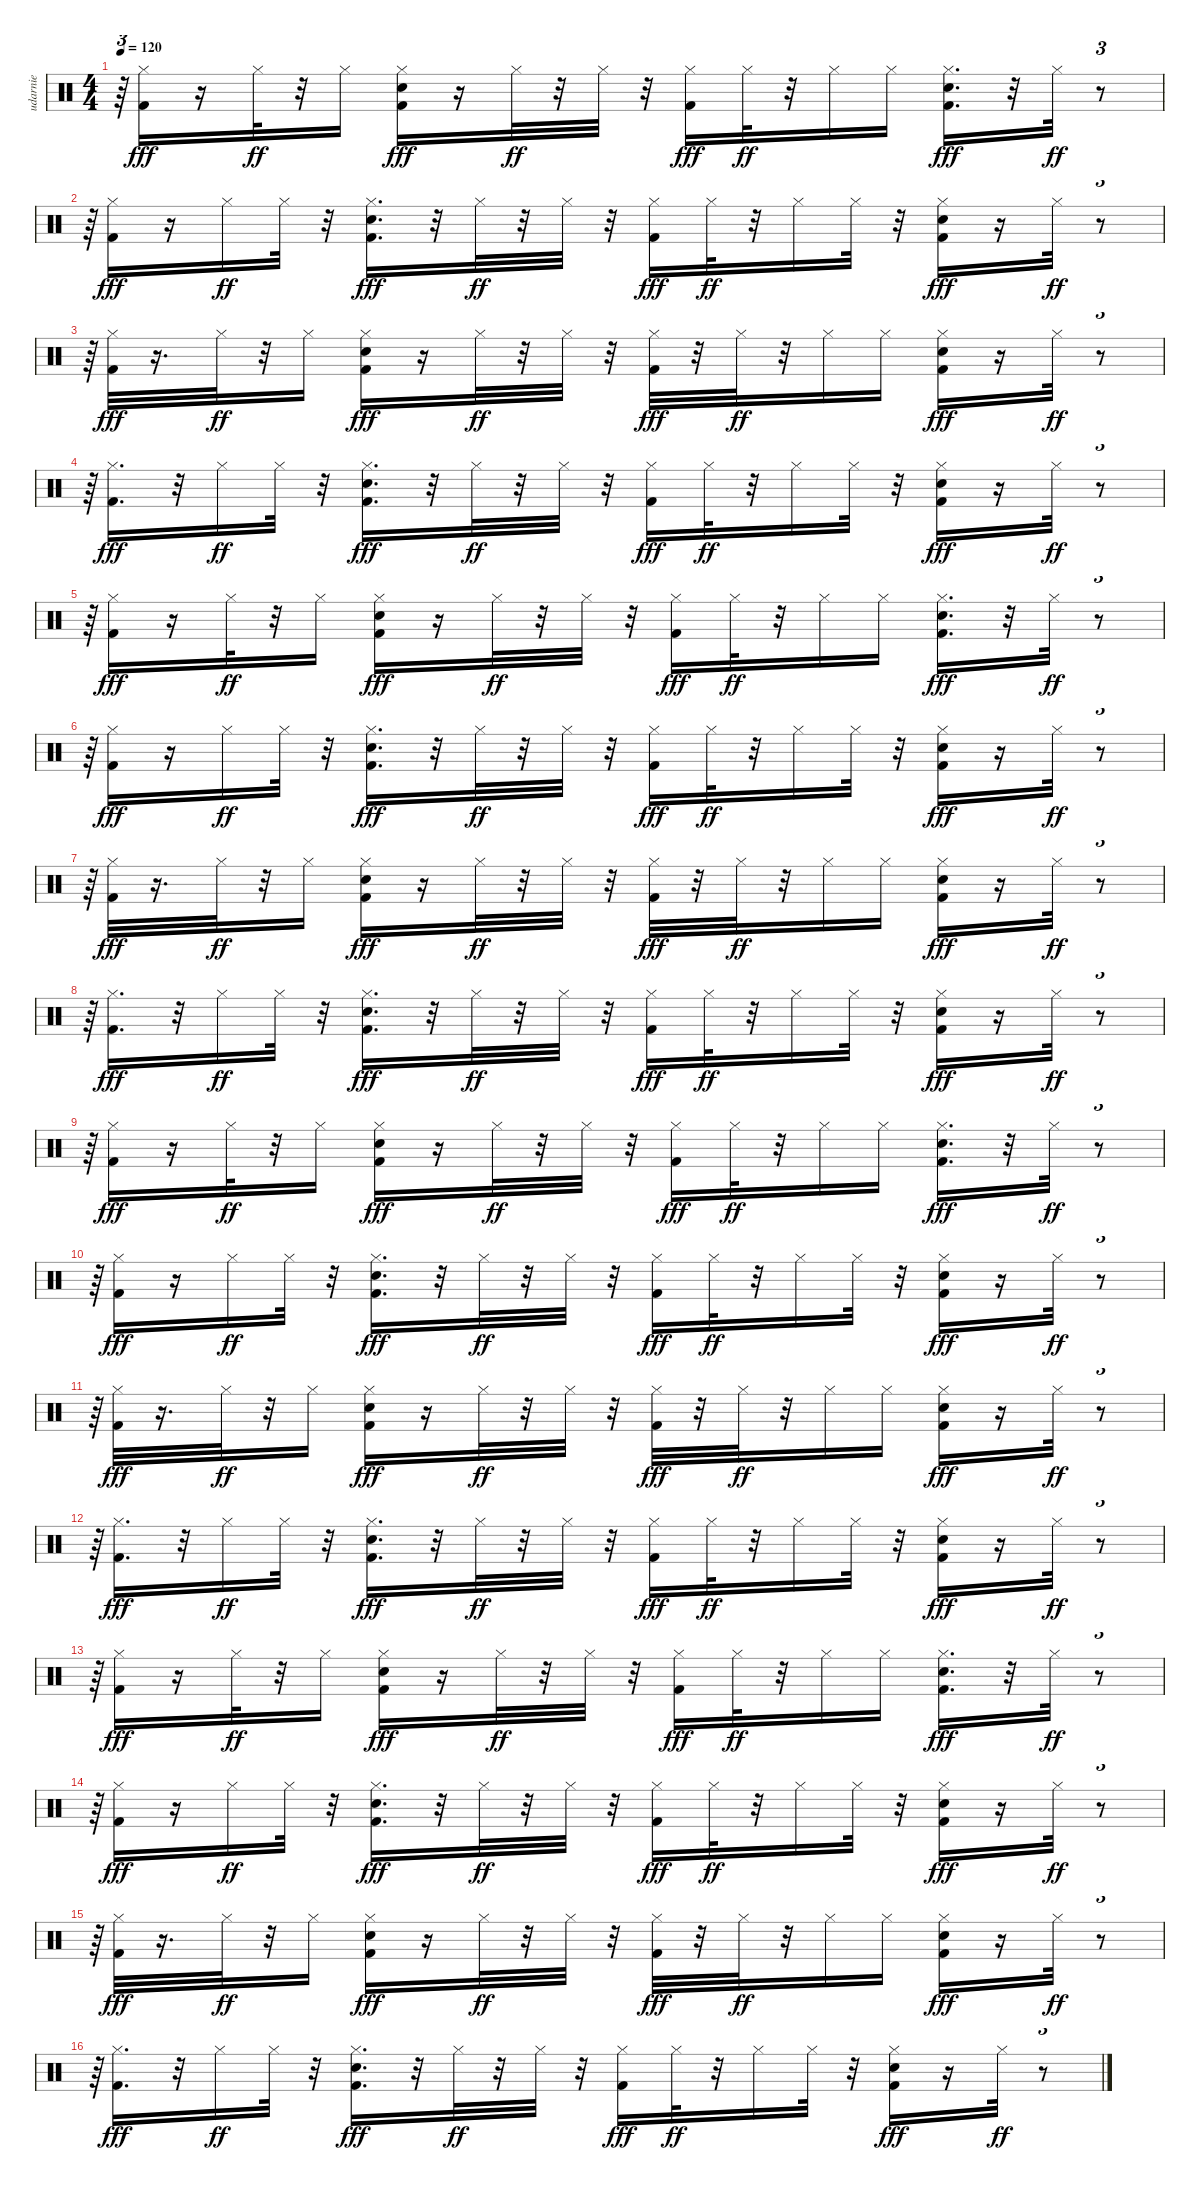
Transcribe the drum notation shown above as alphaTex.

\track ("udarnie" "udarnie") {instrument percussion}
\staff {score}
\articulation defaults
\ts (4 4)
\tempo 120
\clef neutral
\ks c
r.64{tu (3 2) dy ff} ("Hi-Hat (closed)" "Kick (hit) 2").16{dy fff} r.16 "Hi-Hat (closed)".32{dy ff} r.32 "Hi-Hat (closed)".16 ("Hi-Hat (closed)" "Electric Snare (hit)" "Kick (hit) 2").16{dy fff} r.16 "Hi-Hat (closed)".32{dy ff} r.32 "Hi-Hat (closed)".32 r.32 ("Hi-Hat (closed)" "Kick (hit) 2").16{dy fff} "Hi-Hat (closed)".32{dy ff} r.32 "Hi-Hat (closed)".16 "Hi-Hat (closed)".16 ("Hi-Hat (closed)" "Electric Snare (hit)" "Kick (hit) 2").16{d dy fff} r.32 "Hi-Hat (closed)".32{dy ff} r.8{tu (3 2)} |
r.64{tu (3 2)} ("Hi-Hat (closed)" "Kick (hit) 2").16{dy fff} r.16 "Hi-Hat (closed)".16{dy ff} "Hi-Hat (closed)".32 r.32 ("Hi-Hat (closed)" "Electric Snare (hit)" "Kick (hit) 2").16{d dy fff} r.32 "Hi-Hat (closed)".32{dy ff} r.32 "Hi-Hat (closed)".32 r.32 ("Hi-Hat (closed)" "Kick (hit) 2").16{dy fff} "Hi-Hat (closed)".32{dy ff} r.32 "Hi-Hat (closed)".16 "Hi-Hat (closed)".32 r.32 ("Hi-Hat (closed)" "Electric Snare (hit)" "Kick (hit) 2").16{dy fff} r.16 "Hi-Hat (closed)".32{dy ff} r.8{tu (3 2)} |
r.64{tu (3 2)} ("Hi-Hat (closed)" "Kick (hit) 2").32{dy fff} r.16{d} "Hi-Hat (closed)".32{dy ff} r.32 "Hi-Hat (closed)".16 ("Hi-Hat (closed)" "Electric Snare (hit)" "Kick (hit) 2").16{dy fff} r.16 "Hi-Hat (closed)".32{dy ff} r.32 "Hi-Hat (closed)".32 r.32 ("Hi-Hat (closed)" "Kick (hit) 2").32{dy fff} r.32 "Hi-Hat (closed)".32{dy ff} r.32 "Hi-Hat (closed)".16 "Hi-Hat (closed)".16 ("Hi-Hat (closed)" "Electric Snare (hit)" "Kick (hit) 2").16{dy fff} r.16 "Hi-Hat (closed)".32{dy ff} r.8{tu (3 2)} |
r.64{tu (3 2)} ("Hi-Hat (closed)" "Kick (hit) 2").16{d dy fff} r.32 "Hi-Hat (closed)".16{dy ff} "Hi-Hat (closed)".32 r.32 ("Hi-Hat (closed)" "Electric Snare (hit)" "Kick (hit) 2").16{d dy fff} r.32 "Hi-Hat (closed)".32{dy ff} r.32 "Hi-Hat (closed)".32 r.32 ("Hi-Hat (closed)" "Kick (hit) 2").16{dy fff} "Hi-Hat (closed)".32{dy ff} r.32 "Hi-Hat (closed)".16 "Hi-Hat (closed)".32 r.32 ("Hi-Hat (closed)" "Electric Snare (hit)" "Kick (hit) 2").16{dy fff} r.16 "Hi-Hat (closed)".32{dy ff} r.8{tu (3 2)} |
r.64{tu (3 2)} ("Hi-Hat (closed)" "Kick (hit) 2").16{dy fff} r.16 "Hi-Hat (closed)".32{dy ff} r.32 "Hi-Hat (closed)".16 ("Hi-Hat (closed)" "Electric Snare (hit)" "Kick (hit) 2").16{dy fff} r.16 "Hi-Hat (closed)".32{dy ff} r.32 "Hi-Hat (closed)".32 r.32 ("Hi-Hat (closed)" "Kick (hit) 2").16{dy fff} "Hi-Hat (closed)".32{dy ff} r.32 "Hi-Hat (closed)".16 "Hi-Hat (closed)".16 ("Hi-Hat (closed)" "Electric Snare (hit)" "Kick (hit) 2").16{d dy fff} r.32 "Hi-Hat (closed)".32{dy ff} r.8{tu (3 2)} |
r.64{tu (3 2)} ("Hi-Hat (closed)" "Kick (hit) 2").16{dy fff} r.16 "Hi-Hat (closed)".16{dy ff} "Hi-Hat (closed)".32 r.32 ("Hi-Hat (closed)" "Electric Snare (hit)" "Kick (hit) 2").16{d dy fff} r.32 "Hi-Hat (closed)".32{dy ff} r.32 "Hi-Hat (closed)".32 r.32 ("Hi-Hat (closed)" "Kick (hit) 2").16{dy fff} "Hi-Hat (closed)".32{dy ff} r.32 "Hi-Hat (closed)".16 "Hi-Hat (closed)".32 r.32 ("Hi-Hat (closed)" "Electric Snare (hit)" "Kick (hit) 2").16{dy fff} r.16 "Hi-Hat (closed)".32{dy ff} r.8{tu (3 2)} |
r.64{tu (3 2)} ("Hi-Hat (closed)" "Kick (hit) 2").32{dy fff} r.16{d} "Hi-Hat (closed)".32{dy ff} r.32 "Hi-Hat (closed)".16 ("Hi-Hat (closed)" "Electric Snare (hit)" "Kick (hit) 2").16{dy fff} r.16 "Hi-Hat (closed)".32{dy ff} r.32 "Hi-Hat (closed)".32 r.32 ("Hi-Hat (closed)" "Kick (hit) 2").32{dy fff} r.32 "Hi-Hat (closed)".32{dy ff} r.32 "Hi-Hat (closed)".16 "Hi-Hat (closed)".16 ("Hi-Hat (closed)" "Electric Snare (hit)" "Kick (hit) 2").16{dy fff} r.16 "Hi-Hat (closed)".32{dy ff} r.8{tu (3 2)} |
r.64{tu (3 2)} ("Hi-Hat (closed)" "Kick (hit) 2").16{d dy fff} r.32 "Hi-Hat (closed)".16{dy ff} "Hi-Hat (closed)".32 r.32 ("Hi-Hat (closed)" "Electric Snare (hit)" "Kick (hit) 2").16{d dy fff} r.32 "Hi-Hat (closed)".32{dy ff} r.32 "Hi-Hat (closed)".32 r.32 ("Hi-Hat (closed)" "Kick (hit) 2").16{dy fff} "Hi-Hat (closed)".32{dy ff} r.32 "Hi-Hat (closed)".16 "Hi-Hat (closed)".32 r.32 ("Hi-Hat (closed)" "Electric Snare (hit)" "Kick (hit) 2").16{dy fff} r.16 "Hi-Hat (closed)".32{dy ff} r.8{tu (3 2)} |
r.64{tu (3 2)} ("Hi-Hat (closed)" "Kick (hit) 2").16{dy fff} r.16 "Hi-Hat (closed)".32{dy ff} r.32 "Hi-Hat (closed)".16 ("Hi-Hat (closed)" "Electric Snare (hit)" "Kick (hit) 2").16{dy fff} r.16 "Hi-Hat (closed)".32{dy ff} r.32 "Hi-Hat (closed)".32 r.32 ("Hi-Hat (closed)" "Kick (hit) 2").16{dy fff} "Hi-Hat (closed)".32{dy ff} r.32 "Hi-Hat (closed)".16 "Hi-Hat (closed)".16 ("Hi-Hat (closed)" "Electric Snare (hit)" "Kick (hit) 2").16{d dy fff} r.32 "Hi-Hat (closed)".32{dy ff} r.8{tu (3 2)} |
r.64{tu (3 2)} ("Hi-Hat (closed)" "Kick (hit) 2").16{dy fff} r.16 "Hi-Hat (closed)".16{dy ff} "Hi-Hat (closed)".32 r.32 ("Hi-Hat (closed)" "Electric Snare (hit)" "Kick (hit) 2").16{d dy fff} r.32 "Hi-Hat (closed)".32{dy ff} r.32 "Hi-Hat (closed)".32 r.32 ("Hi-Hat (closed)" "Kick (hit) 2").16{dy fff} "Hi-Hat (closed)".32{dy ff} r.32 "Hi-Hat (closed)".16 "Hi-Hat (closed)".32 r.32 ("Hi-Hat (closed)" "Electric Snare (hit)" "Kick (hit) 2").16{dy fff} r.16 "Hi-Hat (closed)".32{dy ff} r.8{tu (3 2)} |
r.64{tu (3 2)} ("Hi-Hat (closed)" "Kick (hit) 2").32{dy fff} r.16{d} "Hi-Hat (closed)".32{dy ff} r.32 "Hi-Hat (closed)".16 ("Hi-Hat (closed)" "Electric Snare (hit)" "Kick (hit) 2").16{dy fff} r.16 "Hi-Hat (closed)".32{dy ff} r.32 "Hi-Hat (closed)".32 r.32 ("Hi-Hat (closed)" "Kick (hit) 2").32{dy fff} r.32 "Hi-Hat (closed)".32{dy ff} r.32 "Hi-Hat (closed)".16 "Hi-Hat (closed)".16 ("Hi-Hat (closed)" "Electric Snare (hit)" "Kick (hit) 2").16{dy fff} r.16 "Hi-Hat (closed)".32{dy ff} r.8{tu (3 2)} |
r.64{tu (3 2)} ("Hi-Hat (closed)" "Kick (hit) 2").16{d dy fff} r.32 "Hi-Hat (closed)".16{dy ff} "Hi-Hat (closed)".32 r.32 ("Hi-Hat (closed)" "Electric Snare (hit)" "Kick (hit) 2").16{d dy fff} r.32 "Hi-Hat (closed)".32{dy ff} r.32 "Hi-Hat (closed)".32 r.32 ("Hi-Hat (closed)" "Kick (hit) 2").16{dy fff} "Hi-Hat (closed)".32{dy ff} r.32 "Hi-Hat (closed)".16 "Hi-Hat (closed)".32 r.32 ("Hi-Hat (closed)" "Electric Snare (hit)" "Kick (hit) 2").16{dy fff} r.16 "Hi-Hat (closed)".32{dy ff} r.8{tu (3 2)} |
r.64{tu (3 2)} ("Hi-Hat (closed)" "Kick (hit) 2").16{dy fff} r.16 "Hi-Hat (closed)".32{dy ff} r.32 "Hi-Hat (closed)".16 ("Hi-Hat (closed)" "Electric Snare (hit)" "Kick (hit) 2").16{dy fff} r.16 "Hi-Hat (closed)".32{dy ff} r.32 "Hi-Hat (closed)".32 r.32 ("Hi-Hat (closed)" "Kick (hit) 2").16{dy fff} "Hi-Hat (closed)".32{dy ff} r.32 "Hi-Hat (closed)".16 "Hi-Hat (closed)".16 ("Hi-Hat (closed)" "Electric Snare (hit)" "Kick (hit) 2").16{d dy fff} r.32 "Hi-Hat (closed)".32{dy ff} r.8{tu (3 2)} |
r.64{tu (3 2)} ("Hi-Hat (closed)" "Kick (hit) 2").16{dy fff} r.16 "Hi-Hat (closed)".16{dy ff} "Hi-Hat (closed)".32 r.32 ("Hi-Hat (closed)" "Electric Snare (hit)" "Kick (hit) 2").16{d dy fff} r.32 "Hi-Hat (closed)".32{dy ff} r.32 "Hi-Hat (closed)".32 r.32 ("Hi-Hat (closed)" "Kick (hit) 2").16{dy fff} "Hi-Hat (closed)".32{dy ff} r.32 "Hi-Hat (closed)".16 "Hi-Hat (closed)".32 r.32 ("Hi-Hat (closed)" "Electric Snare (hit)" "Kick (hit) 2").16{dy fff} r.16 "Hi-Hat (closed)".32{dy ff} r.8{tu (3 2)} |
r.64{tu (3 2)} ("Hi-Hat (closed)" "Kick (hit) 2").32{dy fff} r.16{d} "Hi-Hat (closed)".32{dy ff} r.32 "Hi-Hat (closed)".16 ("Hi-Hat (closed)" "Electric Snare (hit)" "Kick (hit) 2").16{dy fff} r.16 "Hi-Hat (closed)".32{dy ff} r.32 "Hi-Hat (closed)".32 r.32 ("Hi-Hat (closed)" "Kick (hit) 2").32{dy fff} r.32 "Hi-Hat (closed)".32{dy ff} r.32 "Hi-Hat (closed)".16 "Hi-Hat (closed)".16 ("Hi-Hat (closed)" "Electric Snare (hit)" "Kick (hit) 2").16{dy fff} r.16 "Hi-Hat (closed)".32{dy ff} r.8{tu (3 2)} |
r.64{tu (3 2)} ("Hi-Hat (closed)" "Kick (hit) 2").16{d dy fff} r.32 "Hi-Hat (closed)".16{dy ff} "Hi-Hat (closed)".32 r.32 ("Hi-Hat (closed)" "Electric Snare (hit)" "Kick (hit) 2").16{d dy fff} r.32 "Hi-Hat (closed)".32{dy ff} r.32 "Hi-Hat (closed)".32 r.32 ("Hi-Hat (closed)" "Kick (hit) 2").16{dy fff} "Hi-Hat (closed)".32{dy ff} r.32 "Hi-Hat (closed)".16 "Hi-Hat (closed)".32 r.32 ("Hi-Hat (closed)" "Electric Snare (hit)" "Kick (hit) 2").16{dy fff} r.16 "Hi-Hat (closed)".32{dy ff} r.8{tu (3 2)}
